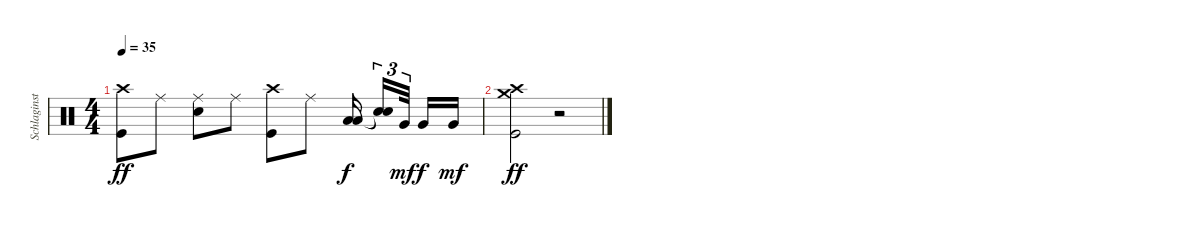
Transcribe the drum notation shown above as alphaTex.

\track ("Schlaginstrumente - Auswahl" "Schlaginst") {instrument percussion}
\staff {score}
\articulation defaults
\ts (4 4)
\tempo 35
\clef neutral
\ks c
("Crash high (hit)" "Kick (hit)").8{dy ff} "Ride (middle)".8 ("Ride (middle)" "Snare (hit) 2").8 "Ride (middle)".8 ("Crash high (hit)" "Kick (hit)").8 "Ride (middle)".8 ("Low Floor Tom (hit)" "Low Tom (hit)").16{bd 60 dy f beam splitsecondary} ("Snare (hit)"{t} "Snare (hit)"{t}).16{tu (3 2)} "Very Low Tom (hit)".32{tu (3 2) dy mf beam splitsecondary} "Very Low Tom (hit)".16{dy f} "Very Low Tom (hit)".16{dy mf} |
("Crash medium (hit)" "Kick (hit)" "Crash high (hit)").2{dy ff} r.2
